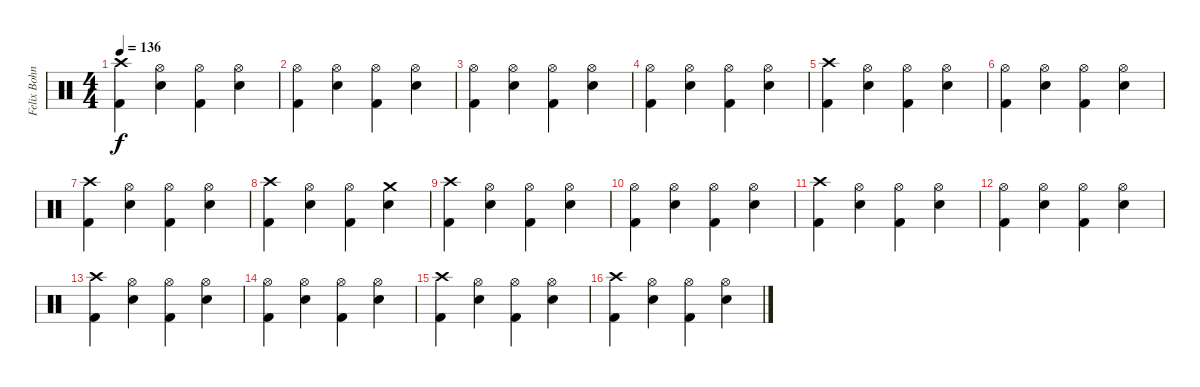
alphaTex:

\track ("Felix Bohnke" "Felix Bohn") {instrument percussion}
\staff {score}
\articulation defaults
\ts (4 4)
\tempo 136
\clef neutral
\ks c
("Crash high (hit)" "Kick (hit) 2").4{dy f} ("Hi-Hat (open)" "Snare (hit) 2").4 ("Hi-Hat (open)" "Kick (hit) 2").4 ("Hi-Hat (open)" "Snare (hit) 2").4 |
("Hi-Hat (open)" "Kick (hit) 2").4 ("Hi-Hat (open)" "Snare (hit) 2").4 ("Hi-Hat (open)" "Kick (hit) 2").4 ("Hi-Hat (open)" "Snare (hit) 2").4 |
("Hi-Hat (open)" "Kick (hit) 2").4 ("Hi-Hat (open)" "Snare (hit) 2").4 ("Hi-Hat (open)" "Kick (hit) 2").4 ("Hi-Hat (open)" "Snare (hit) 2").4 |
("Hi-Hat (open)" "Kick (hit) 2").4 ("Hi-Hat (open)" "Snare (hit) 2").4 ("Hi-Hat (open)" "Kick (hit) 2").4 ("Hi-Hat (open)" "Snare (hit) 2").4 |
("Crash high (hit)" "Kick (hit) 2").4 ("Hi-Hat (open)" "Snare (hit) 2").4 ("Hi-Hat (open)" "Kick (hit) 2").4 ("Hi-Hat (open)" "Snare (hit) 2").4 |
("Hi-Hat (open)" "Kick (hit) 2").4 ("Hi-Hat (open)" "Snare (hit) 2").4 ("Hi-Hat (open)" "Kick (hit) 2").4 ("Hi-Hat (open)" "Snare (hit) 2").4 |
("Crash high (hit)" "Kick (hit) 2").4 ("Hi-Hat (open)" "Snare (hit) 2").4 ("Hi-Hat (open)" "Kick (hit) 2").4 ("Hi-Hat (open)" "Snare (hit) 2").4 |
("Crash high (hit)" "Kick (hit) 2").4 ("Hi-Hat (open)" "Snare (hit) 2").4 ("Hi-Hat (open)" "Kick (hit) 2").4 ("Crash medium (hit)" "Snare (hit) 2").4 |
("Crash high (hit)" "Kick (hit) 2").4 ("Hi-Hat (open)" "Snare (hit) 2").4 ("Hi-Hat (open)" "Kick (hit) 2").4 ("Hi-Hat (open)" "Snare (hit) 2").4 |
("Hi-Hat (open)" "Kick (hit) 2").4 ("Hi-Hat (open)" "Snare (hit) 2").4 ("Hi-Hat (open)" "Kick (hit) 2").4 ("Hi-Hat (open)" "Snare (hit) 2").4 |
("Crash high (hit)" "Kick (hit) 2").4 ("Hi-Hat (open)" "Snare (hit) 2").4 ("Hi-Hat (open)" "Kick (hit) 2").4 ("Hi-Hat (open)" "Snare (hit) 2").4 |
("Hi-Hat (open)" "Kick (hit) 2").4 ("Hi-Hat (open)" "Snare (hit) 2").4 ("Hi-Hat (open)" "Kick (hit) 2").4 ("Hi-Hat (open)" "Snare (hit) 2").4 |
("Crash high (hit)" "Kick (hit) 2").4 ("Hi-Hat (open)" "Snare (hit) 2").4 ("Hi-Hat (open)" "Kick (hit) 2").4 ("Hi-Hat (open)" "Snare (hit) 2").4 |
("Hi-Hat (open)" "Kick (hit) 2").4 ("Hi-Hat (open)" "Snare (hit) 2").4 ("Hi-Hat (open)" "Kick (hit) 2").4 ("Hi-Hat (open)" "Snare (hit) 2").4 |
("Crash high (hit)" "Kick (hit) 2").4 ("Hi-Hat (open)" "Snare (hit) 2").4 ("Hi-Hat (open)" "Kick (hit) 2").4 ("Hi-Hat (open)" "Snare (hit) 2").4 |
("Crash high (hit)" "Kick (hit) 2").4 ("Hi-Hat (open)" "Snare (hit) 2").4 ("Hi-Hat (open)" "Kick (hit) 2").4 ("Hi-Hat (open)" "Snare (hit) 2").4
